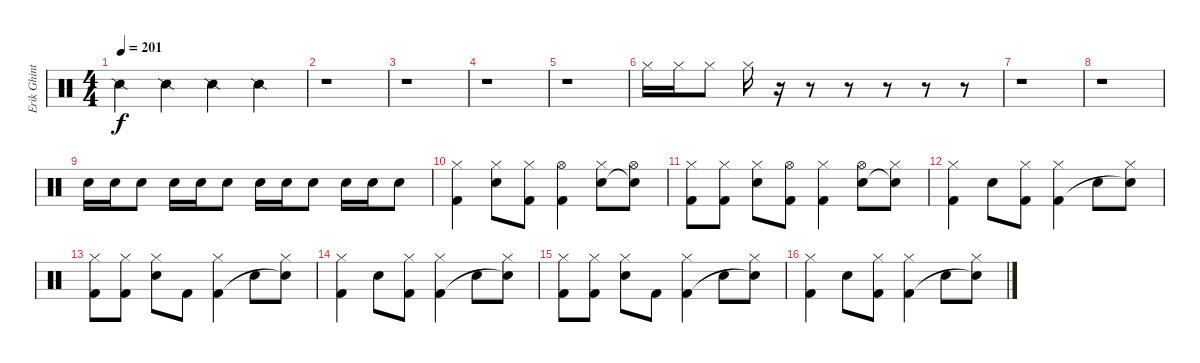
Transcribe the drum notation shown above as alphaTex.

\track ("Erik Ghint" "Erik Ghint") {instrument percussion}
\staff {score}
\articulation defaults
\ts (4 4)
\tempo 201
\clef neutral
\ks c "Snare (side stick) 2".4{dy f} "Snare (side stick) 2".4 "Snare (side stick) 2".4 "Snare (side stick) 2".4
|
r.1 |
r.1 |
r.1 |
r.1 |
"Hi-Hat (closed)".16 "Hi-Hat (closed)".16 "Hi-Hat (closed)".8 "Hi-Hat (closed)".16 r.16 r.8 r.8 r.8 r.8 r.8 |
r.1 |
r.1 |
"Snare (hit) 2".16 "Snare (hit) 2".16 "Snare (hit) 2".8 "Snare (hit) 2".16 "Snare (hit) 2".16 "Snare (hit) 2".8 "Snare (hit) 2".16 "Snare (hit) 2".16 "Snare (hit) 2".8 "Snare (hit) 2".16 "Snare (hit) 2".16 "Snare (hit) 2".8 |
("Hi-Hat (closed)" "Kick (hit) 2").4 ("Hi-Hat (closed)" "Snare (hit) 2").8 ("Hi-Hat (closed)" "Kick (hit) 2").8 ("Hi-Hat (open)" "Kick (hit) 2").4 ("Hi-Hat (closed)" "Snare (hit) 2").8 ("Hi-Hat (open)" "Snare (hit)"{t}).8 |
("Hi-Hat (closed)" "Kick (hit) 2").8 ("Hi-Hat (closed)" "Kick (hit) 2").8 ("Hi-Hat (closed)" "Snare (hit) 2").8 ("Hi-Hat (open)" "Kick (hit) 2").8 ("Hi-Hat (closed)" "Kick (hit) 2").4 ("Hi-Hat (open)" "Snare (hit) 2").8 ("Hi-Hat (closed)" "Snare (hit)"{t}).8 |
("Hi-Hat (closed)" "Kick (hit) 2").4 "Snare (hit) 2".8 ("Hi-Hat (closed)" "Kick (hit) 2").8 ("Hi-Hat (closed)" "Kick (hit) 2").4 "Snare (hit) 2".8 ("Hi-Hat (closed)" "Snare (hit)"{t}).8 |
("Hi-Hat (closed)" "Kick (hit) 2").8 ("Hi-Hat (closed)" "Kick (hit) 2").8 ("Hi-Hat (closed)" "Snare (hit) 2").8 "Kick (hit) 2".8 ("Hi-Hat (closed)" "Kick (hit) 2").4 "Snare (hit) 2".8 ("Hi-Hat (closed)" "Snare (hit)"{t}).8 |
("Hi-Hat (closed)" "Kick (hit) 2").4 "Snare (hit) 2".8 ("Hi-Hat (closed)" "Kick (hit) 2").8 ("Hi-Hat (closed)" "Kick (hit) 2").4 "Snare (hit) 2".8 ("Hi-Hat (closed)" "Snare (hit)"{t}).8 |
("Hi-Hat (closed)" "Kick (hit) 2").8 ("Hi-Hat (closed)" "Kick (hit) 2").8 ("Hi-Hat (closed)" "Snare (hit) 2").8 "Kick (hit) 2".8 ("Hi-Hat (closed)" "Kick (hit) 2").4 "Snare (hit) 2".8 ("Hi-Hat (closed)" "Snare (hit)"{t}).8 |
("Hi-Hat (closed)" "Kick (hit) 2").4 "Snare (hit) 2".8 ("Hi-Hat (closed)" "Kick (hit) 2").8 ("Hi-Hat (closed)" "Kick (hit) 2").4 "Snare (hit) 2".8 ("Hi-Hat (closed)" "Snare (hit)"{t}).8
